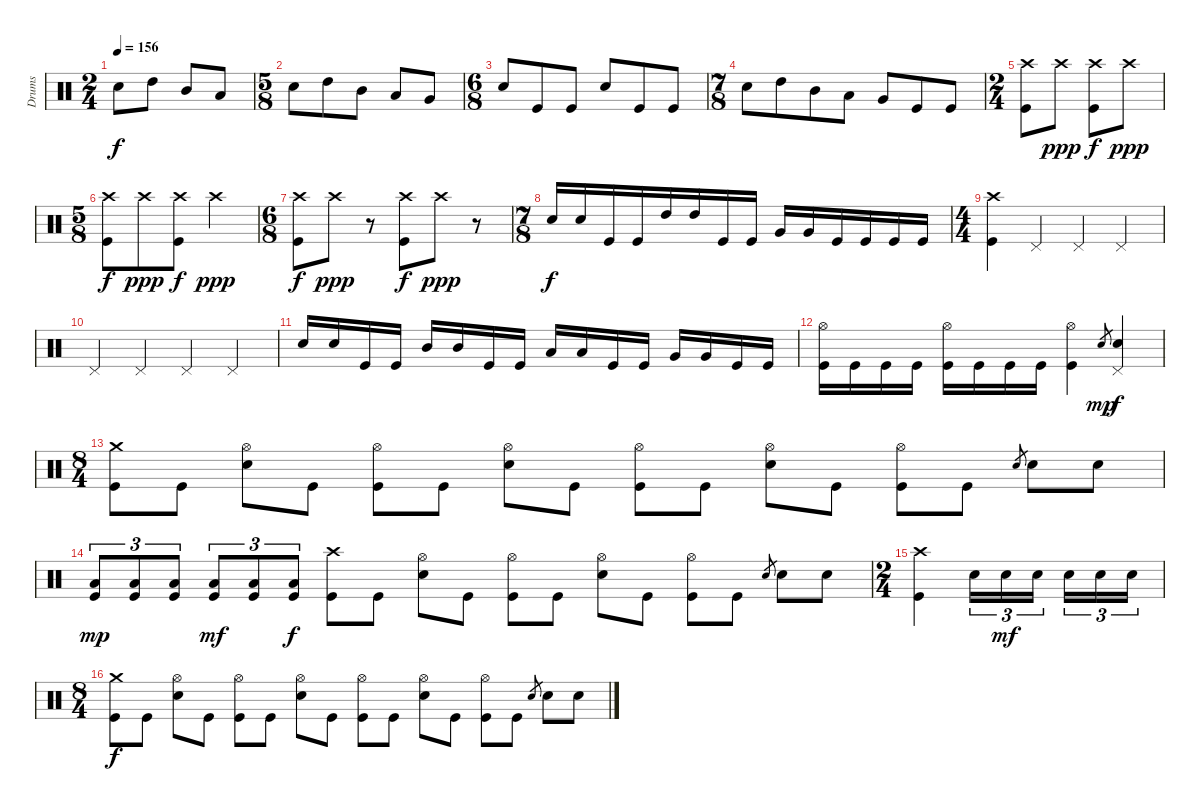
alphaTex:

\track ("Drums" "Drums") {instrument percussion}
\staff {score}
\articulation defaults
\ts (2 4)
\tempo 156
\clef neutral
\ks c "Electric Snare (hit)".8{dy f} "High Tom (hit)".8 "Mid Tom (hit)".8 "Low Tom (hit)".8
|
\ts (5 8)
"Electric Snare (hit)".8 "High Tom (hit)".8 "Mid Tom (hit)".8 "Low Tom (hit)".8 "Very Low Tom (hit)".8 |
\ts (6 8)
"Electric Snare (hit)".8 "Kick (hit)".8 "Kick (hit)".8 "Electric Snare (hit)".8 "Kick (hit)".8 "Kick (hit)".8 |
\ts (7 8)
"Electric Snare (hit)".8 "High Tom (hit)".8 "Mid Tom (hit)".8 "Low Tom (hit)".8 "Very Low Tom (hit)".8 "Kick (hit)".8 "Kick (hit)".8 |
\ts (2 4)
("Crash high (hit)" "Kick (hit)").8 "Crash high (hit)".8{dy ppp} ("Crash high (hit)" "Kick (hit)").8{dy f} "Crash high (hit)".8{dy ppp} |
\ts (5 8)
("Crash high (hit)" "Kick (hit)").8{dy f} "Crash high (hit)".8{dy ppp} ("Crash high (hit)" "Kick (hit)").8{dy f} "Crash high (hit)".4{dy ppp} |
\ts (6 8)
("Crash high (hit)" "Kick (hit)").8{dy f} "Crash high (hit)".8{dy ppp} r.8 ("Crash high (hit)" "Kick (hit)").8{dy f} "Crash high (hit)".8{dy ppp} r.8 |
\ts (7 8)
"Electric Snare (hit)".16{dy f} "Electric Snare (hit)".16 "Kick (hit)".16 "Kick (hit)".16 "High Tom (hit)".16 "High Tom (hit)".16 "Kick (hit)".16 "Kick (hit)".16 "Very Low Tom (hit)".16 "Very Low Tom (hit)".16 "Kick (hit)".16 "Kick (hit)".16 "Kick (hit)".16 "Kick (hit)".16 |
\ts (4 4)
("Crash high (hit)" "Kick (hit)").4 "Pedal Hi-Hat (hit)".4 "Pedal Hi-Hat (hit)".4 "Pedal Hi-Hat (hit)".4 |
"Pedal Hi-Hat (hit)".4 "Pedal Hi-Hat (hit)".4 "Pedal Hi-Hat (hit)".4 "Pedal Hi-Hat (hit)".4 |
"Electric Snare (hit)".16 "Electric Snare (hit)".16 "Kick (hit)".16 "Kick (hit)".16 "Mid Tom (hit)".16 "Mid Tom (hit)".16 "Kick (hit)".16 "Kick (hit)".16 "Low Tom (hit)".16 "Low Tom (hit)".16 "Kick (hit)".16 "Kick (hit)".16 "Very Low Tom (hit)".16 "Very Low Tom (hit)".16 "Kick (hit)".16 "Kick (hit)".16 |
("Hi-Hat (open)" "Kick (hit)").16 "Kick (hit)".16 "Kick (hit)".16 "Kick (hit)".16 ("Hi-Hat (open)" "Kick (hit)").16 "Kick (hit)".16 "Kick (hit)".16 "Kick (hit)".16 ("Hi-Hat (open)" "Kick (hit)").4 "Electric Snare (hit)".8{gr dy mp} ("Pedal Hi-Hat (hit)" "Electric Snare (hit)").4{dy f} |
\ts (8 4)
("Crash medium (hit)" "Kick (hit)").8 "Kick (hit)".8 ("Hi-Hat (open)" "Electric Snare (hit)").8 "Kick (hit)".8 ("Hi-Hat (open)" "Kick (hit)").8 "Kick (hit)".8 ("Hi-Hat (open)" "Electric Snare (hit)").8 "Kick (hit)".8 ("Hi-Hat (open)" "Kick (hit)").8 "Kick (hit)".8 ("Hi-Hat (open)" "Electric Snare (hit)").8 "Kick (hit)".8 ("Hi-Hat (open)" "Kick (hit)").8 "Kick (hit)".8 "Electric Snare (hit)".8{gr} "Electric Snare (hit)".8 "Electric Snare (hit)".8 |
("Low Floor Tom (hit)" "Kick (hit)").8{tu (3 2) dy mp} ("Low Floor Tom (hit)" "Kick (hit)").8{tu (3 2)} ("Low Floor Tom (hit)" "Kick (hit)").8{tu (3 2)} ("Low Floor Tom (hit)" "Kick (hit)").8{tu (3 2) dy mf} ("Low Floor Tom (hit)" "Kick (hit)").8{tu (3 2)} ("Low Floor Tom (hit)" "Kick (hit)").8{tu (3 2) dy f} ("Crash high (hit)" "Kick (hit)").8 "Kick (hit)".8 ("Hi-Hat (open)" "Electric Snare (hit)").8 "Kick (hit)".8 ("Hi-Hat (open)" "Kick (hit)").8 "Kick (hit)".8 ("Hi-Hat (open)" "Electric Snare (hit)").8 "Kick (hit)".8 ("Hi-Hat (open)" "Kick (hit)").8 "Kick (hit)".8 "Electric Snare (hit)".8{gr} "Electric Snare (hit)".8 "Electric Snare (hit)".8 |
\ts (2 4)
("Crash high (hit)" "Kick (hit)").4 "Electric Snare (hit)".16{tu (3 2)} "Electric Snare (hit)".16{tu (3 2) dy mf} "Electric Snare (hit)".16{tu (3 2) beam splitsecondary} "Electric Snare (hit)".16{tu (3 2)} "Electric Snare (hit)".16{tu (3 2)} "Electric Snare (hit)".16{tu (3 2)} |
\ts (8 4)
("Crash medium (hit)" "Kick (hit)").8{dy f} "Kick (hit)".8 ("Hi-Hat (open)" "Electric Snare (hit)").8 "Kick (hit)".8 ("Hi-Hat (open)" "Kick (hit)").8 "Kick (hit)".8 ("Hi-Hat (open)" "Electric Snare (hit)").8 "Kick (hit)".8 ("Hi-Hat (open)" "Kick (hit)").8 "Kick (hit)".8 ("Hi-Hat (open)" "Electric Snare (hit)").8 "Kick (hit)".8 ("Hi-Hat (open)" "Kick (hit)").8 "Kick (hit)".8 "Electric Snare (hit)".8{gr} "Electric Snare (hit)".8 "Electric Snare (hit)".8
